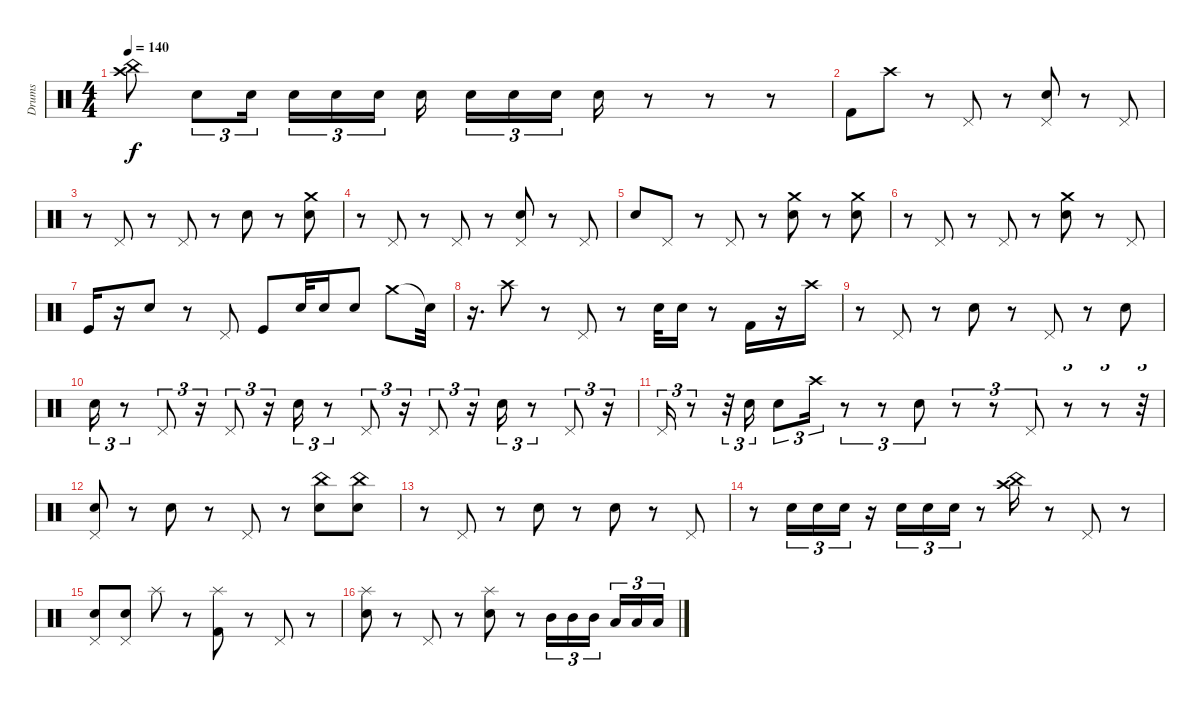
\track ("Drums" "Drums") {instrument percussion}
\staff {score}
\articulation defaults
\ts (4 4)
\tempo 140
\clef neutral
\ks c
("Crash high (hit)" "China (hit)").8{dy f} "Electric Snare (hit)".8{tu (3 2)} "Electric Snare (hit)".16{tu (3 2)} "Electric Snare (hit)".16{tu (3 2)} "Electric Snare (hit)".16{tu (3 2)} "Electric Snare (hit)".16{tu (3 2)} "Electric Snare (hit)".16 "Electric Snare (hit)".16{tu (3 2)} "Electric Snare (hit)".16{tu (3 2)} "Electric Snare (hit)".16{tu (3 2)} "Electric Snare (hit)".16 r.8 r.8 r.8 |
"Kick (hit) 2".8 "Crash high (hit)".8 r.8 "Pedal Hi-Hat (hit)".8 r.8 ("Pedal Hi-Hat (hit)" "Electric Snare (hit)").8 r.8 "Pedal Hi-Hat (hit)".8 |
r.8 "Pedal Hi-Hat (hit)".8 r.8 "Pedal Hi-Hat (hit)".8 r.8 "Electric Snare (hit)".8 r.8 ("Crash medium (hit)" "Electric Snare (hit)").8 |
r.8 "Pedal Hi-Hat (hit)".8 r.8 "Pedal Hi-Hat (hit)".8 r.8 ("Pedal Hi-Hat (hit)" "Electric Snare (hit)").8 r.8 "Pedal Hi-Hat (hit)".8 |
"Electric Snare (hit)".8 "Pedal Hi-Hat (hit)".8 r.8 "Pedal Hi-Hat (hit)".8 r.8 ("Crash medium (hit)" "Electric Snare (hit)").8 r.8 ("Crash medium (hit)" "Electric Snare (hit)").8 |
r.8 "Pedal Hi-Hat (hit)".8 r.8 "Pedal Hi-Hat (hit)".8 r.8 ("Crash medium (hit)" "Electric Snare (hit)").8 r.8 "Pedal Hi-Hat (hit)".8 |
"Kick (hit)".16 r.16 "Electric Snare (hit)".8 r.8 "Pedal Hi-Hat (hit)".8 "Kick (hit)".8 "Electric Snare (hit)".32 "Electric Snare (hit)".16 "Electric Snare (hit)".8 "Crash medium (hit)".8 "Snare (hit)"{t}.32 |
r.16{d} "Crash high (hit)".8 r.8 "Pedal Hi-Hat (hit)".8 r.8 "Electric Snare (hit)".32 "Electric Snare (hit)".16 r.8 "Kick (hit) 2".16 r.16 "Crash high (hit)".16 |
r.8 "Pedal Hi-Hat (hit)".8 r.8 "Electric Snare (hit)".8 r.8 "Pedal Hi-Hat (hit)".8 r.8 "Electric Snare (hit)".8 |
"Electric Snare (hit)".16{tu (3 2)} r.8{tu (3 2)} "Pedal Hi-Hat (hit)".8{tu (3 2)} r.16{tu (3 2)} "Pedal Hi-Hat (hit)".8{tu (3 2)} r.16{tu (3 2)} "Electric Snare (hit)".16{tu (3 2)} r.8{tu (3 2)} "Pedal Hi-Hat (hit)".8{tu (3 2)} r.16{tu (3 2)} "Pedal Hi-Hat (hit)".8{tu (3 2)} r.16{tu (3 2)} "Electric Snare (hit)".16{tu (3 2)} r.8{tu (3 2)} "Pedal Hi-Hat (hit)".8{tu (3 2)} r.16{tu (3 2)} |
"Pedal Hi-Hat (hit)".16{tu (3 2)} r.8{tu (3 2)} r.32{tu (3 2)} "Electric Snare (hit)".16{tu (3 2)} "Electric Snare (hit)".8{tu (3 2)} "Crash high (hit)".16{tu (3 2)} r.8{tu (3 2)} r.8{tu (3 2)} "Electric Snare (hit)".8{tu (3 2)} r.8{tu (3 2)} r.8{tu (3 2)} "Pedal Hi-Hat (hit)".8{tu (3 2)} r.8{tu (3 2)} r.8{tu (3 2)} r.32{tu (3 2)} |
("Pedal Hi-Hat (hit)" "Electric Snare (hit)").8 r.8 "Electric Snare (hit)".8 r.8 "Pedal Hi-Hat (hit)".8 r.8 ("China (hit)" "Electric Snare (hit)").8 ("China (hit)" "Electric Snare (hit)").8 |
r.8 "Pedal Hi-Hat (hit)".8 r.8 "Electric Snare (hit)".8 r.8 "Electric Snare (hit)".8 r.8 "Pedal Hi-Hat (hit)".8 |
r.8 "Electric Snare (hit)".16{tu (3 2)} "Electric Snare (hit)".16{tu (3 2)} "Electric Snare (hit)".16{tu (3 2)} r.16 "Electric Snare (hit)".16{tu (3 2)} "Electric Snare (hit)".16{tu (3 2)} "Electric Snare (hit)".16{tu (3 2)} r.8 ("Crash high (hit)" "China (hit)").16 r.8 "Pedal Hi-Hat (hit)".8 r.8 |
("Pedal Hi-Hat (hit)" "Electric Snare (hit)").8 ("Pedal Hi-Hat (hit)" "Electric Snare (hit)").8 "Splash (hit)".8 r.8 ("Splash (hit)" "Kick (hit) 2").8 r.8 "Pedal Hi-Hat (hit)".8 r.8 |
("Splash (hit)" "Electric Snare (hit)").8 r.8 "Pedal Hi-Hat (hit)".8 r.8 ("Splash (hit)" "Electric Snare (hit)").8 r.8 "Mid Tom (hit)".16{tu (3 2)} "Mid Tom (hit)".16{tu (3 2)} "Mid Tom (hit)".16{tu (3 2)} "Low Tom (hit)".16{tu (3 2)} "Low Tom (hit)".16{tu (3 2)} "Low Tom (hit)".16{tu (3 2)}
